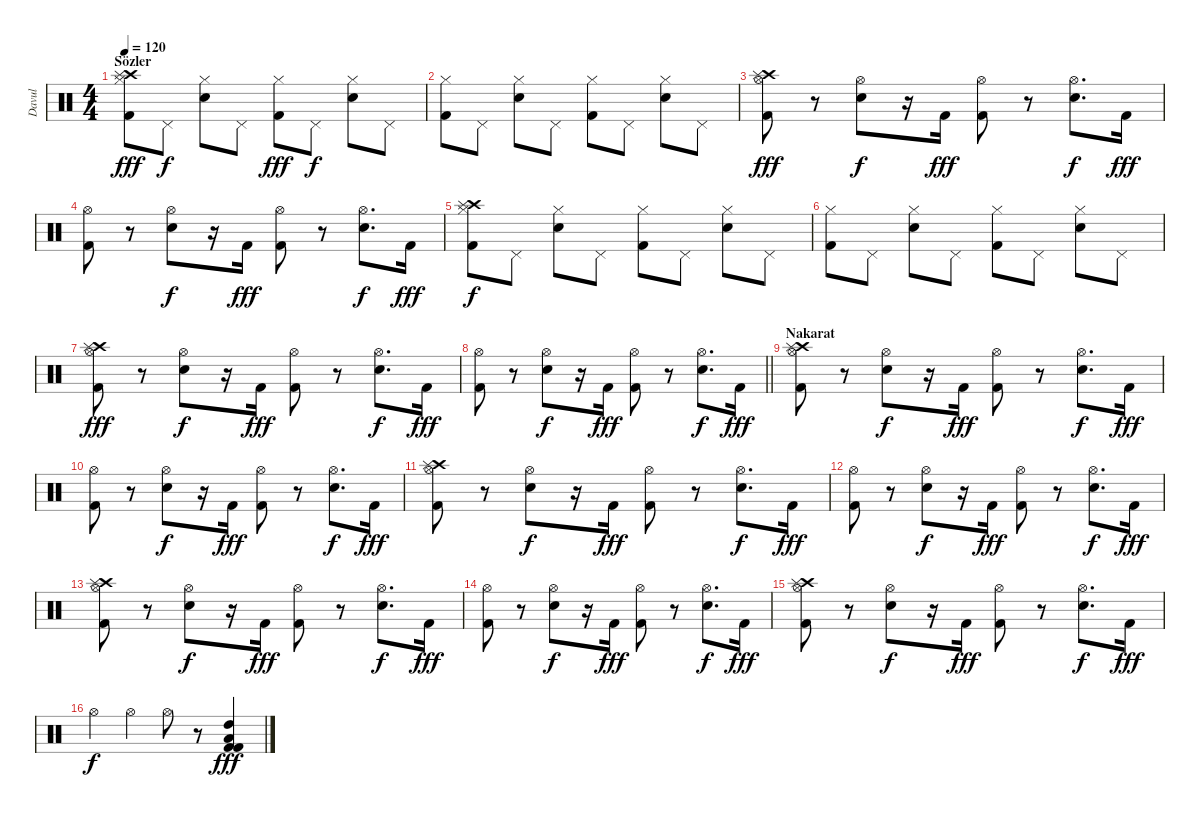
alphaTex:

\track ("Davul" "Davul") {instrument percussion}
\staff {score}
\articulation defaults
\ts (4 4)
\section ("" "Sözler")
\tempo 120
\clef neutral
\ks c
("Hi-Hat (closed)" "Kick (hit) 2" "Crash high (hit)" "Splash (hit)").8{dy fff} "Pedal Hi-Hat (hit)".8{dy f} ("Hi-Hat (closed)" "Snare (hit) 2").8 "Pedal Hi-Hat (hit)".8 ("Hi-Hat (closed)" "Kick (hit) 2").8{dy fff} "Pedal Hi-Hat (hit)".8{dy f} ("Hi-Hat (closed)" "Snare (hit) 2").8 "Pedal Hi-Hat (hit)".8 |
("Hi-Hat (closed)" "Kick (hit) 2").8 "Pedal Hi-Hat (hit)".8 ("Hi-Hat (closed)" "Snare (hit) 2").8 "Pedal Hi-Hat (hit)".8 ("Hi-Hat (closed)" "Kick (hit) 2").8 "Pedal Hi-Hat (hit)".8 ("Hi-Hat (closed)" "Snare (hit) 2").8 "Pedal Hi-Hat (hit)".8 |
("Hi-Hat (open)" "Kick (hit) 2" "Crash high (hit)" "Splash (hit)").8{dy fff} r.8 ("Hi-Hat (open)" "Snare (hit) 2").8{dy f} r.16 "Kick (hit) 2".16{dy fff} ("Hi-Hat (open)" "Kick (hit) 2").8 r.8 ("Hi-Hat (open)" "Snare (hit) 2").8{d dy f} "Kick (hit) 2".16{dy fff} |
("Hi-Hat (open)" "Kick (hit) 2").8 r.8 ("Hi-Hat (open)" "Snare (hit) 2").8{dy f} r.16 "Kick (hit) 2".16{dy fff} ("Hi-Hat (open)" "Kick (hit) 2").8 r.8 ("Hi-Hat (open)" "Snare (hit) 2").8{d dy f} "Kick (hit) 2".16{dy fff} |
("Hi-Hat (closed)" "Kick (hit) 2" "Crash high (hit)" "Splash (hit)").8{dy f} "Pedal Hi-Hat (hit)".8 ("Hi-Hat (closed)" "Snare (hit) 2").8 "Pedal Hi-Hat (hit)".8 ("Hi-Hat (closed)" "Kick (hit) 2").8 "Pedal Hi-Hat (hit)".8 ("Hi-Hat (closed)" "Snare (hit) 2").8 "Pedal Hi-Hat (hit)".8 |
("Hi-Hat (closed)" "Kick (hit) 2").8 "Pedal Hi-Hat (hit)".8 ("Hi-Hat (closed)" "Snare (hit) 2").8 "Pedal Hi-Hat (hit)".8 ("Hi-Hat (closed)" "Kick (hit) 2").8 "Pedal Hi-Hat (hit)".8 ("Hi-Hat (closed)" "Snare (hit) 2").8 "Pedal Hi-Hat (hit)".8 |
("Hi-Hat (open)" "Kick (hit) 2" "Crash high (hit)" "Splash (hit)").8{dy fff} r.8 ("Hi-Hat (open)" "Snare (hit) 2").8{dy f} r.16 "Kick (hit) 2".16{dy fff} ("Hi-Hat (open)" "Kick (hit) 2").8 r.8 ("Hi-Hat (open)" "Snare (hit) 2").8{d dy f} "Kick (hit) 2".16{dy fff} |
\barLineRight lightlight
("Hi-Hat (open)" "Kick (hit) 2").8 r.8 ("Hi-Hat (open)" "Snare (hit) 2").8{dy f} r.16 "Kick (hit) 2".16{dy fff} ("Hi-Hat (open)" "Kick (hit) 2").8 r.8 ("Hi-Hat (open)" "Snare (hit) 2").8{d dy f} "Kick (hit) 2".16{dy fff} |
\section ("" "Nakarat")
("Hi-Hat (open)" "Kick (hit) 2" "Crash high (hit)" "Splash (hit)").8 r.8 ("Hi-Hat (open)" "Snare (hit) 2").8{dy f} r.16 "Kick (hit) 2".16{dy fff} ("Hi-Hat (open)" "Kick (hit) 2").8 r.8 ("Hi-Hat (open)" "Snare (hit) 2").8{d dy f} "Kick (hit) 2".16{dy fff} |
("Hi-Hat (open)" "Kick (hit) 2").8 r.8 ("Hi-Hat (open)" "Snare (hit) 2").8{dy f} r.16 "Kick (hit) 2".16{dy fff} ("Hi-Hat (open)" "Kick (hit) 2").8 r.8 ("Hi-Hat (open)" "Snare (hit) 2").8{d dy f} "Kick (hit) 2".16{dy fff} |
("Hi-Hat (open)" "Kick (hit) 2" "Crash high (hit)" "Splash (hit)").8 r.8 ("Hi-Hat (open)" "Snare (hit) 2").8{dy f} r.16 "Kick (hit) 2".16{dy fff} ("Hi-Hat (open)" "Kick (hit) 2").8 r.8 ("Hi-Hat (open)" "Snare (hit) 2").8{d dy f} "Kick (hit) 2".16{dy fff} |
("Hi-Hat (open)" "Kick (hit) 2").8 r.8 ("Hi-Hat (open)" "Snare (hit) 2").8{dy f} r.16 "Kick (hit) 2".16{dy fff} ("Hi-Hat (open)" "Kick (hit) 2").8 r.8 ("Hi-Hat (open)" "Snare (hit) 2").8{d dy f} "Kick (hit) 2".16{dy fff} |
("Hi-Hat (open)" "Kick (hit) 2" "Crash high (hit)" "Splash (hit)").8 r.8 ("Hi-Hat (open)" "Snare (hit) 2").8{dy f} r.16 "Kick (hit) 2".16{dy fff} ("Hi-Hat (open)" "Kick (hit) 2").8 r.8 ("Hi-Hat (open)" "Snare (hit) 2").8{d dy f} "Kick (hit) 2".16{dy fff} |
("Hi-Hat (open)" "Kick (hit) 2").8 r.8 ("Hi-Hat (open)" "Snare (hit) 2").8{dy f} r.16 "Kick (hit) 2".16{dy fff} ("Hi-Hat (open)" "Kick (hit) 2").8 r.8 ("Hi-Hat (open)" "Snare (hit) 2").8{d dy f} "Kick (hit) 2".16{dy fff} |
("Hi-Hat (open)" "Kick (hit) 2" "Crash high (hit)" "Splash (hit)").8 r.8 ("Hi-Hat (open)" "Snare (hit) 2").8{dy f} r.16 "Kick (hit) 2".16{dy fff} ("Hi-Hat (open)" "Kick (hit) 2").8 r.8 ("Hi-Hat (open)" "Snare (hit) 2").8{d dy f} "Kick (hit) 2".16{dy fff} |
"Hi-Hat (open)".4{dy f} "Hi-Hat (open)".4 "Hi-Hat (open)".8 r.8 ("Kick (hit) 2" "Kick (hit) 2" "Low Tom (hit)" "High Tom (hit)").4{dy fff}
